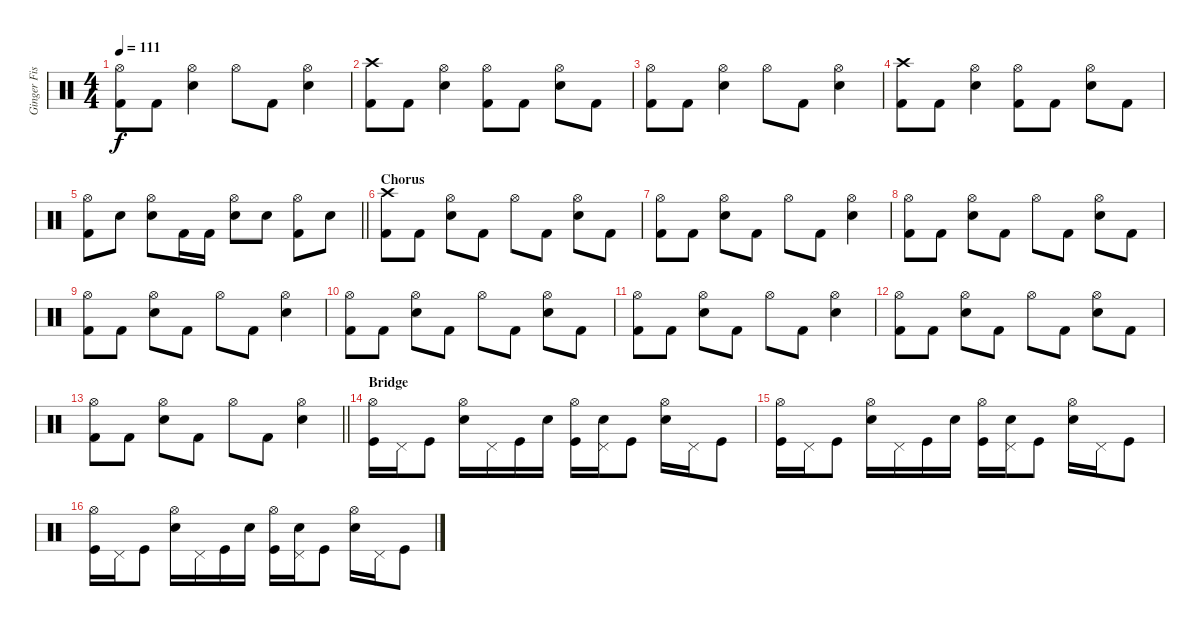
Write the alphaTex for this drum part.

\track ("Ginger Fish" "Ginger Fis") {instrument percussion}
\staff {score}
\articulation defaults
\ts (4 4)
\tempo 111
\clef neutral
\ks c
("Hi-Hat (open)" "Kick (hit) 2").8{dy f} "Kick (hit) 2".8 ("Hi-Hat (open)" "Snare (hit) 2").4 "Hi-Hat (open)".8 "Kick (hit) 2".8 ("Hi-Hat (open)" "Snare (hit) 2").4 |
("Crash high (hit)" "Kick (hit) 2").8 "Kick (hit) 2".8 ("Hi-Hat (open)" "Snare (hit) 2").4 ("Hi-Hat (open)" "Kick (hit) 2").8 "Kick (hit) 2".8 ("Hi-Hat (open)" "Snare (hit) 2").8 "Kick (hit) 2".8 |
("Hi-Hat (open)" "Kick (hit) 2").8 "Kick (hit) 2".8 ("Hi-Hat (open)" "Snare (hit) 2").4 "Hi-Hat (open)".8 "Kick (hit) 2".8 ("Hi-Hat (open)" "Snare (hit) 2").4 |
("Crash high (hit)" "Kick (hit) 2").8 "Kick (hit) 2".8 ("Hi-Hat (open)" "Snare (hit) 2").4 ("Hi-Hat (open)" "Kick (hit) 2").8 "Kick (hit) 2".8 ("Hi-Hat (open)" "Snare (hit) 2").8 "Kick (hit) 2".8 |
\barLineRight lightlight
("Hi-Hat (open)" "Kick (hit) 2").8 "Snare (hit) 2".8 ("Hi-Hat (open)" "Snare (hit) 2").8 "Kick (hit) 2".16 "Kick (hit) 2".16 ("Hi-Hat (open)" "Snare (hit) 2").8 "Snare (hit) 2".8 ("Hi-Hat (open)" "Kick (hit) 2").8 "Snare (hit) 2".8 |
\section ("" "Chorus")
("Crash high (hit)" "Kick (hit) 2").8 "Kick (hit) 2".8 ("Hi-Hat (open)" "Snare (hit) 2").8 "Kick (hit) 2".8 "Hi-Hat (open)".8 "Kick (hit) 2".8 ("Hi-Hat (open)" "Snare (hit) 2").8 "Kick (hit) 2".8 |
("Hi-Hat (open)" "Kick (hit) 2").8 "Kick (hit) 2".8 ("Hi-Hat (open)" "Snare (hit) 2").8 "Kick (hit) 2".8 "Hi-Hat (open)".8 "Kick (hit) 2".8 ("Hi-Hat (open)" "Snare (hit) 2").4 |
("Hi-Hat (open)" "Kick (hit) 2").8 "Kick (hit) 2".8 ("Hi-Hat (open)" "Snare (hit) 2").8 "Kick (hit) 2".8 "Hi-Hat (open)".8 "Kick (hit) 2".8 ("Hi-Hat (open)" "Snare (hit) 2").8 "Kick (hit) 2".8 |
("Hi-Hat (open)" "Kick (hit) 2").8 "Kick (hit) 2".8 ("Hi-Hat (open)" "Snare (hit) 2").8 "Kick (hit) 2".8 "Hi-Hat (open)".8 "Kick (hit) 2".8 ("Hi-Hat (open)" "Snare (hit) 2").4 |
("Hi-Hat (open)" "Kick (hit) 2").8 "Kick (hit) 2".8 ("Hi-Hat (open)" "Snare (hit) 2").8 "Kick (hit) 2".8 "Hi-Hat (open)".8 "Kick (hit) 2".8 ("Hi-Hat (open)" "Snare (hit) 2").8 "Kick (hit) 2".8 |
("Hi-Hat (open)" "Kick (hit) 2").8 "Kick (hit) 2".8 ("Hi-Hat (open)" "Snare (hit) 2").8 "Kick (hit) 2".8 "Hi-Hat (open)".8 "Kick (hit) 2".8 ("Hi-Hat (open)" "Snare (hit) 2").4 |
("Hi-Hat (open)" "Kick (hit) 2").8 "Kick (hit) 2".8 ("Hi-Hat (open)" "Snare (hit) 2").8 "Kick (hit) 2".8 "Hi-Hat (open)".8 "Kick (hit) 2".8 ("Hi-Hat (open)" "Snare (hit) 2").8 "Kick (hit) 2".8 |
\barLineRight lightlight
("Hi-Hat (open)" "Kick (hit) 2").8 "Kick (hit) 2".8 ("Hi-Hat (open)" "Snare (hit) 2").8 "Kick (hit) 2".8 "Hi-Hat (open)".8 "Kick (hit) 2".8 ("Hi-Hat (open)" "Snare (hit) 2").4 |
\section ("" "Bridge")
("Hi-Hat (open)" "Kick (hit)").16 "Pedal Hi-Hat (hit)".16 "Kick (hit)".8 ("Hi-Hat (open)" "Electric Snare (hit)").16 "Pedal Hi-Hat (hit)".16 "Kick (hit)".16 "Electric Snare (hit)".16 ("Hi-Hat (open)" "Kick (hit)").16 ("Pedal Hi-Hat (hit)" "Electric Snare (hit)").16 "Kick (hit)".8 ("Hi-Hat (open)" "Electric Snare (hit)").16 "Pedal Hi-Hat (hit)".16 "Kick (hit)".8 |
("Hi-Hat (open)" "Kick (hit)").16 "Pedal Hi-Hat (hit)".16 "Kick (hit)".8 ("Hi-Hat (open)" "Electric Snare (hit)").16 "Pedal Hi-Hat (hit)".16 "Kick (hit)".16 "Electric Snare (hit)".16 ("Hi-Hat (open)" "Kick (hit)").16 ("Pedal Hi-Hat (hit)" "Electric Snare (hit)").16 "Kick (hit)".8 ("Hi-Hat (open)" "Electric Snare (hit)").16 "Pedal Hi-Hat (hit)".16 "Kick (hit)".8 |
("Hi-Hat (open)" "Kick (hit)").16 "Pedal Hi-Hat (hit)".16 "Kick (hit)".8 ("Hi-Hat (open)" "Electric Snare (hit)").16 "Pedal Hi-Hat (hit)".16 "Kick (hit)".16 "Electric Snare (hit)".16 ("Hi-Hat (open)" "Kick (hit)").16 ("Pedal Hi-Hat (hit)" "Electric Snare (hit)").16 "Kick (hit)".8 ("Hi-Hat (open)" "Electric Snare (hit)").16 "Pedal Hi-Hat (hit)".16 "Kick (hit)".8
